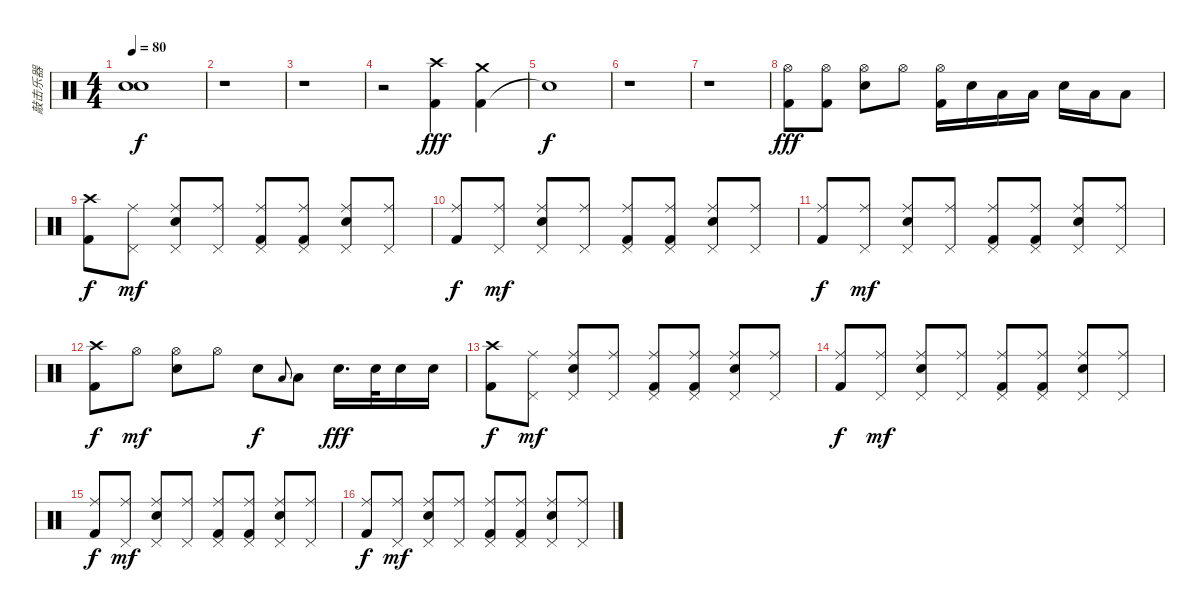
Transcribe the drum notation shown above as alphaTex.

\track ("敲击乐器" "敲击乐器") {instrument percussion}
\staff {score}
\articulation defaults
\ts (4 4)
\tempo 80
\clef neutral
\ks c
("Snare (hit)"{t} "Snare (hit)"{t}).1{dy f} |
r.1 |
r.1 |
r.2 ("Kick (hit) 2" "Crash high (hit)").4{dy fff} ("Kick (hit) 2" "Crash medium (hit)").4 |
"Snare (hit)"{t}.1{dy f} |
r.1 |
r.1 |
("Kick (hit) 2" "Hi-Hat (open)").8{dy fff} ("Kick (hit) 2" "Hi-Hat (open)").8 ("Electric Snare (hit)" "Hi-Hat (open)").8 "Hi-Hat (open)".8 ("Kick (hit) 2" "Hi-Hat (open)").16 "Electric Snare (hit)".16 "Low Tom (hit)".16 "Low Tom (hit)".16 "Electric Snare (hit)".16 "Low Tom (hit)".16 "Low Floor Tom (hit)".8 |
("Crash high (hit)" "Kick (hit) 2").8{dy f} ("Ride (middle)" "Pedal Hi-Hat (hit)").8{dy mf} ("Ride (middle)" "Electric Snare (hit)" "Pedal Hi-Hat (hit)").8 ("Ride (middle)" "Pedal Hi-Hat (hit)").8 ("Ride (middle)" "Kick (hit) 2" "Pedal Hi-Hat (hit)").8 ("Ride (middle)" "Kick (hit) 2" "Pedal Hi-Hat (hit)").8 ("Ride (middle)" "Electric Snare (hit)" "Pedal Hi-Hat (hit)").8 ("Ride (middle)" "Pedal Hi-Hat (hit)").8 |
("Ride (middle)" "Kick (hit) 2").8{dy f} ("Ride (middle)" "Pedal Hi-Hat (hit)").8{dy mf} ("Ride (middle)" "Electric Snare (hit)" "Pedal Hi-Hat (hit)").8 ("Ride (middle)" "Pedal Hi-Hat (hit)").8 ("Ride (middle)" "Kick (hit) 2" "Pedal Hi-Hat (hit)").8 ("Ride (middle)" "Kick (hit) 2" "Pedal Hi-Hat (hit)").8 ("Ride (middle)" "Electric Snare (hit)" "Pedal Hi-Hat (hit)").8 ("Ride (middle)" "Pedal Hi-Hat (hit)").8 |
("Ride (middle)" "Kick (hit) 2").8{dy f} ("Ride (middle)" "Pedal Hi-Hat (hit)").8{dy mf} ("Ride (middle)" "Electric Snare (hit)" "Pedal Hi-Hat (hit)").8 ("Ride (middle)" "Pedal Hi-Hat (hit)").8 ("Ride (middle)" "Kick (hit) 2" "Pedal Hi-Hat (hit)").8 ("Ride (middle)" "Kick (hit) 2" "Pedal Hi-Hat (hit)").8 ("Ride (middle)" "Electric Snare (hit)" "Pedal Hi-Hat (hit)").8 ("Ride (middle)" "Pedal Hi-Hat (hit)").8 |
("Crash high (hit)" "Kick (hit) 2").8{dy f} "Hi-Hat (open)".8{dy mf} ("Electric Snare (hit)" "Hi-Hat (open)").8 "Hi-Hat (open)".8 "Electric Snare (hit)".8{dy f} "Low Tom (hit)".8{gr onbeat} "Low Tom (hit)".8 "Electric Snare (hit)".16{d dy fff} "Electric Snare (hit)".32 "Electric Snare (hit)".16 "Electric Snare (hit)".16 |
("Crash high (hit)" "Kick (hit) 2").8{dy f} ("Ride (middle)" "Pedal Hi-Hat (hit)").8{dy mf} ("Ride (middle)" "Electric Snare (hit)" "Pedal Hi-Hat (hit)").8 ("Ride (middle)" "Pedal Hi-Hat (hit)").8 ("Ride (middle)" "Kick (hit) 2" "Pedal Hi-Hat (hit)").8 ("Ride (middle)" "Kick (hit) 2" "Pedal Hi-Hat (hit)").8 ("Ride (middle)" "Electric Snare (hit)" "Pedal Hi-Hat (hit)").8 ("Ride (middle)" "Pedal Hi-Hat (hit)").8 |
("Ride (middle)" "Kick (hit) 2").8{dy f} ("Ride (middle)" "Pedal Hi-Hat (hit)").8{dy mf} ("Ride (middle)" "Electric Snare (hit)" "Pedal Hi-Hat (hit)").8 ("Ride (middle)" "Pedal Hi-Hat (hit)").8 ("Ride (middle)" "Kick (hit) 2" "Pedal Hi-Hat (hit)").8 ("Ride (middle)" "Kick (hit) 2" "Pedal Hi-Hat (hit)").8 ("Ride (middle)" "Electric Snare (hit)" "Pedal Hi-Hat (hit)").8 ("Ride (middle)" "Pedal Hi-Hat (hit)").8 |
("Ride (middle)" "Kick (hit) 2").8{dy f} ("Ride (middle)" "Pedal Hi-Hat (hit)").8{dy mf} ("Ride (middle)" "Electric Snare (hit)" "Pedal Hi-Hat (hit)").8 ("Ride (middle)" "Pedal Hi-Hat (hit)").8 ("Ride (middle)" "Kick (hit) 2" "Pedal Hi-Hat (hit)").8 ("Ride (middle)" "Kick (hit) 2" "Pedal Hi-Hat (hit)").8 ("Ride (middle)" "Electric Snare (hit)" "Pedal Hi-Hat (hit)").8 ("Ride (middle)" "Pedal Hi-Hat (hit)").8 |
("Ride (middle)" "Kick (hit) 2").8{dy f} ("Ride (middle)" "Pedal Hi-Hat (hit)").8{dy mf} ("Ride (middle)" "Electric Snare (hit)" "Pedal Hi-Hat (hit)").8 ("Ride (middle)" "Pedal Hi-Hat (hit)").8 ("Ride (middle)" "Kick (hit) 2" "Pedal Hi-Hat (hit)").8 ("Ride (middle)" "Kick (hit) 2" "Pedal Hi-Hat (hit)").8 ("Ride (middle)" "Electric Snare (hit)" "Pedal Hi-Hat (hit)").8 ("Ride (middle)" "Pedal Hi-Hat (hit)").8
